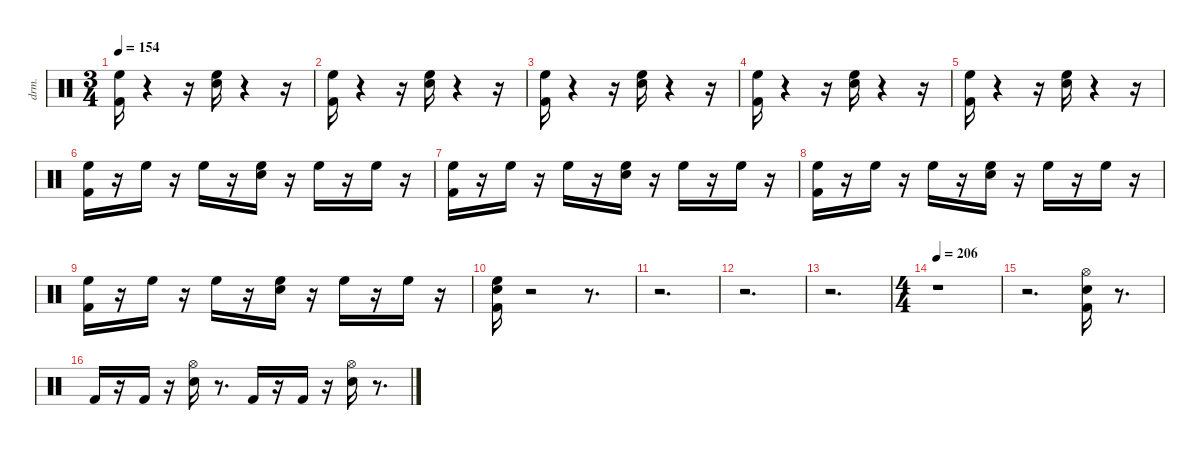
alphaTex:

\defaultSystemsLayout 4
\hideDynamics
\bracketExtendMode nobrackets
\otherSystemsTrackNameOrientation horizontal
\track ("EZdrummer 3" "drm.") {instrument percussion}
\staff {score}
\articulation defaults
\ts (3 4)
\tempo 154
\clef neutral
\ks aminor
("Kick (hit) 2" "High Floor Tom (hit)").16{dy ff beam Down} r.4{beam Down} r.16{beam Down} ("Snare (hit) 2" "High Floor Tom (hit)").16{beam Down} r.4{beam Down} r.16{beam Down} |
("Kick (hit) 2" "High Floor Tom (hit)").16{beam Down} r.4{beam Down} r.16{beam Down} ("Snare (hit) 2" "High Floor Tom (hit)").16{beam Down} r.4{beam Down} r.16{beam Down} |
("Kick (hit) 2" "High Floor Tom (hit)").16{beam Down} r.4{beam Down} r.16{beam Down} ("Snare (hit) 2" "High Floor Tom (hit)").16{beam Down} r.4{beam Down} r.16{beam Down} |
("Kick (hit) 2" "High Floor Tom (hit)").16{beam Down} r.4{beam Down} r.16{beam Down} ("Snare (hit) 2" "High Floor Tom (hit)").16{beam Down} r.4{beam Down} r.16{beam Down} |
("Kick (hit) 2" "High Floor Tom (hit)").16{beam Down} r.4{beam Down} r.16{beam Down} ("Snare (hit) 2" "High Floor Tom (hit)").16{beam Down} r.4{beam Down} r.16{beam Down} |
("Kick (hit) 2" "High Floor Tom (hit)").16{beam Down} r.16{beam Down} "High Floor Tom (hit)".16{dy pp beam Down} r.16{beam Down} "High Floor Tom (hit)".16{dy mp beam Down} r.16{beam Down} ("Snare (hit) 2" "High Floor Tom (hit)").16{dy ff beam Down} r.16{beam Down} "High Floor Tom (hit)".16{dy pp beam Down} r.16{beam Down} "High Floor Tom (hit)".16{dy p beam Down} r.16{beam Down} |
("Kick (hit) 2" "High Floor Tom (hit)").16{dy ff beam Down} r.16{beam Down} "High Floor Tom (hit)".16{dy pp beam Down} r.16{beam Down} "High Floor Tom (hit)".16{dy mf beam Down} r.16{beam Down} ("Snare (hit) 2" "High Floor Tom (hit)").16{dy ff beam Down} r.16{beam Down} "High Floor Tom (hit)".16{dy p beam Down} r.16{beam Down} "High Floor Tom (hit)".16{dy mf beam Down} r.16{beam Down} |
("Kick (hit) 2" "High Floor Tom (hit)").16{dy ff beam Down} r.16{beam Down} "High Floor Tom (hit)".16{dy p beam Down} r.16{beam Down} "High Floor Tom (hit)".16{dy mf beam Down} r.16{beam Down} ("Snare (hit) 2" "High Floor Tom (hit)").16{dy ff beam Down} r.16{beam Down} "High Floor Tom (hit)".16{dy p beam Down} r.16{beam Down} "High Floor Tom (hit)".16{dy mf beam Down} r.16{beam Down} |
("Kick (hit) 2" "High Floor Tom (hit)").16{dy ff beam Down} r.16{beam Down} "High Floor Tom (hit)".16{dy p beam Down} r.16{beam Down} "High Floor Tom (hit)".16{dy mf beam Down} r.16{beam Down} ("Snare (hit) 2" "High Floor Tom (hit)").16{dy ff beam Down} r.16{beam Down} "High Floor Tom (hit)".16{dy p beam Down} r.16{beam Down} "High Floor Tom (hit)".16{dy mf beam Down} r.16{beam Down} |
("Kick (hit) 2" "Snare (hit) 2" "High Floor Tom (hit)").16{dy ff beam Down} r.2{beam Down} r.8{d beam Down} |
r.2{d beam Down} |
r.2{d beam Down} |
r.2{d beam Down} |
\ts (4 4)
\tempo 206
r.1{beam Down} |
r.2{d beam Down} ("Kick (hit) 2" "Snare (hit) 2" "Hi-Hat (open)"{acc #}).16{beam Down} r.8{d beam Down} |
"Kick (hit) 2".16{dy mf beam Up} r.16{beam Up} "Kick (hit) 2".16{dy ff beam Up} r.16{beam Up} ("Snare (hit) 2" "Hi-Hat (open)"{acc #}).16{beam Down} r.8{d beam Down} "Kick (hit) 2".16{dy mf beam Up} r.16{beam Up} "Kick (hit) 2".16{dy ff beam Up} r.16{beam Up} ("Snare (hit) 2" "Hi-Hat (open)"{acc #}).16{beam Down} r.8{d beam Down}
